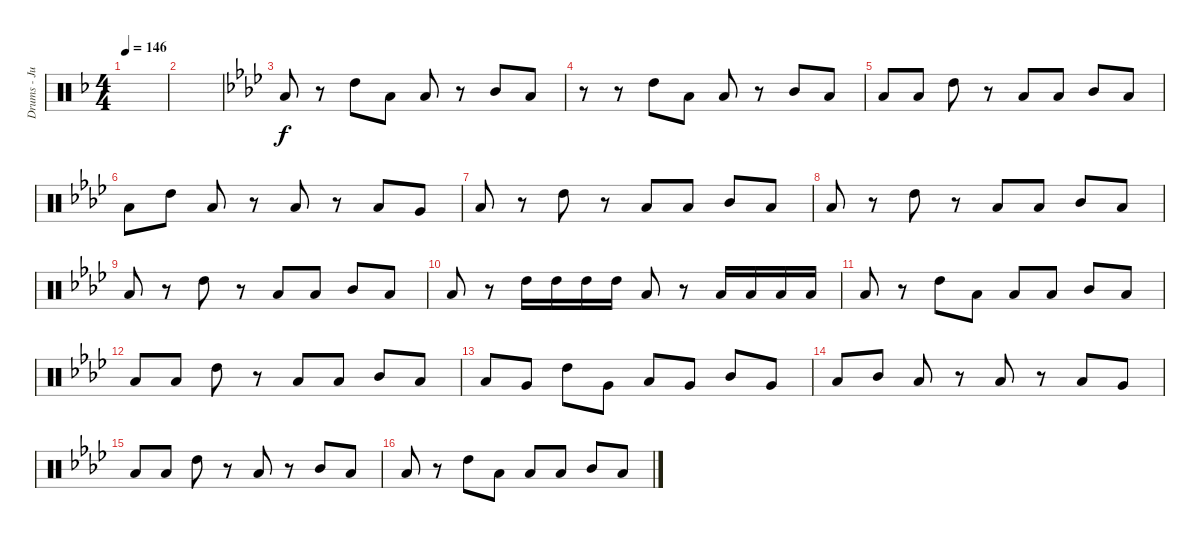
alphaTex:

\track ("Drums - Jukka" "Drums - Ju") {instrument percussion}
\staff {score}
\articulation defaults
\ts (4 4)
\tempo 146
\clef neutral
\ks dminor
|
|
\ks fminor "Low Floor Tom (hit)".8
r.8 "High Tom (hit)".8 "Low Floor Tom (hit)".8 "Low Floor Tom (hit)".8 r.8 "Mid Tom (hit)".8 "Low Floor Tom (hit)".8 |
r.8 r.8 "High Tom (hit)".8 "Low Floor Tom (hit)".8 "Low Floor Tom (hit)".8 r.8 "Mid Tom (hit)".8 "Low Floor Tom (hit)".8 |
"Low Floor Tom (hit)".8 "Low Floor Tom (hit)".8 "High Tom (hit)".8 r.8 "Low Floor Tom (hit)".8 "Low Floor Tom (hit)".8 "Mid Tom (hit)".8 "Low Floor Tom (hit)".8 |
"Low Floor Tom (hit)".8 "High Tom (hit)".8 "Low Floor Tom (hit)".8 r.8 "Low Tom (hit)".8 r.8 "Low Floor Tom (hit)".8 "Very Low Tom (hit)".8 |
"Low Floor Tom (hit)".8 r.8 "High Tom (hit)".8 r.8 "Low Floor Tom (hit)".8 "Low Floor Tom (hit)".8 "Mid Tom (hit)".8 "Low Floor Tom (hit)".8 |
"Low Floor Tom (hit)".8 r.8 "High Tom (hit)".8 r.8 "Low Floor Tom (hit)".8 "Low Floor Tom (hit)".8 "Mid Tom (hit)".8 "Low Floor Tom (hit)".8 |
"Low Floor Tom (hit)".8 r.8 "High Tom (hit)".8 r.8 "Low Floor Tom (hit)".8 "Low Floor Tom (hit)".8 "Mid Tom (hit)".8 "Low Floor Tom (hit)".8 |
"Low Floor Tom (hit)".8 r.8 "High Tom (hit)".16 "High Tom (hit)".16 "High Tom (hit)".16 "High Tom (hit)".16 "Low Floor Tom (hit)".8 r.8 "Low Tom (hit)".16 "Low Tom (hit)".16 "Low Tom (hit)".16 "Low Tom (hit)".16 |
"Low Floor Tom (hit)".8 r.8 "High Tom (hit)".8 "Low Floor Tom (hit)".8 "Low Floor Tom (hit)".8 "Low Floor Tom (hit)".8 "Mid Tom (hit)".8 "Low Floor Tom (hit)".8 |
"Low Floor Tom (hit)".8 "Low Floor Tom (hit)".8 "High Tom (hit)".8 r.8 "Low Floor Tom (hit)".8 "Low Floor Tom (hit)".8 "Mid Tom (hit)".8 "Low Floor Tom (hit)".8 |
"Low Floor Tom (hit)".8 "Very Low Tom (hit)".8 "High Tom (hit)".8 "Very Low Tom (hit)".8 "Low Floor Tom (hit)".8 "Very Low Tom (hit)".8 "Mid Tom (hit)".8 "Very Low Tom (hit)".8 |
"Low Floor Tom (hit)".8 "Mid Tom (hit)".8 "Low Floor Tom (hit)".8 r.8 "Low Tom (hit)".8 r.8 "Low Floor Tom (hit)".8 "Very Low Tom (hit)".8 |
"Low Floor Tom (hit)".8 "Low Floor Tom (hit)".8 "High Tom (hit)".8 r.8 "Low Floor Tom (hit)".8 r.8 "Mid Tom (hit)".8 "Low Floor Tom (hit)".8 |
"Low Floor Tom (hit)".8 r.8 "High Tom (hit)".8 "Low Floor Tom (hit)".8 "Low Floor Tom (hit)".8 "Low Floor Tom (hit)".8 "Mid Tom (hit)".8 "Low Floor Tom (hit)".8
